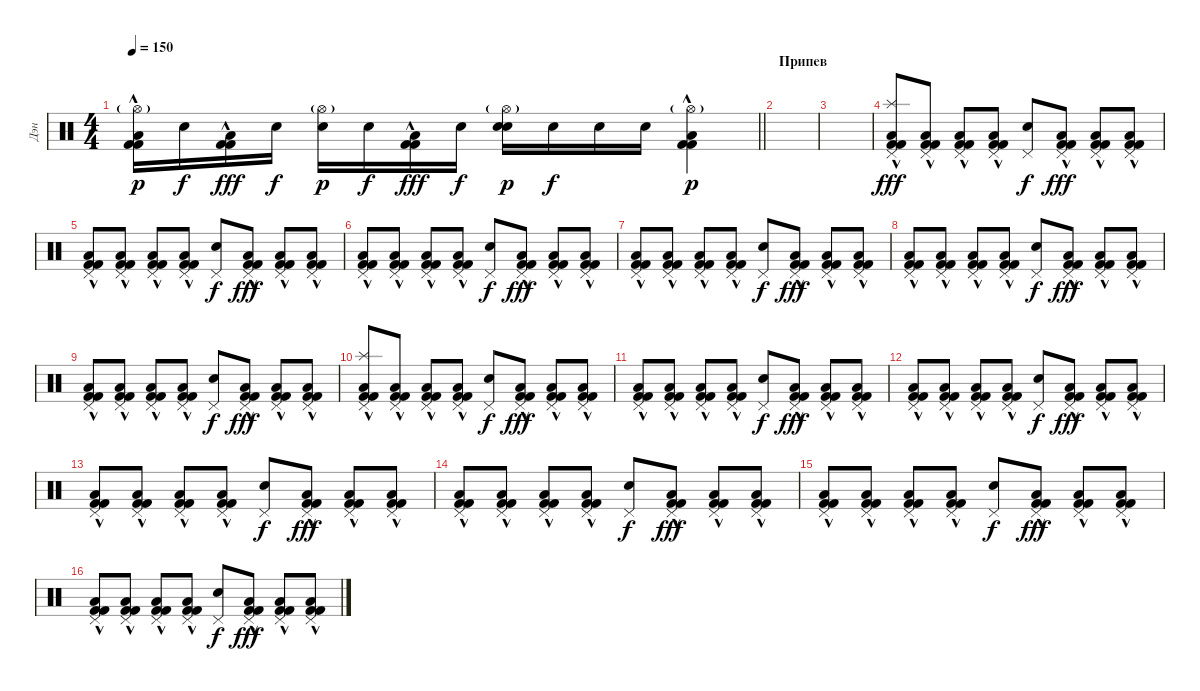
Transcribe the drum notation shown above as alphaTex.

\track ("Дэн" "Дэн") {instrument percussion}
\staff {score}
\articulation defaults
\ts (4 4)
\tempo 150
\clef neutral
\barLineRight lightlight
\ks c
("Kick (hit) 2"{hac} "Kick (hit) 2"{hac} "Low Floor Tom (hit)" "Hi-Hat (open)"{g}).16{dy p} "Snare (hit)".16{dy f} ("Kick (hit) 2"{hac} "Kick (hit) 2"{hac} "Low Floor Tom (hit)").16{dy fff} "Snare (hit)".16{dy f} ("Snare (hit)" "Hi-Hat (open)"{g}).16{dy p} "Snare (hit)".16{dy f} ("Low Floor Tom (hit)" "Kick (hit) 2"{hac} "Kick (hit) 2"{hac}).16{dy fff} "Snare (hit)".16{dy f} ("Snare (hit)" "Electric Snare (hit)" "Hi-Hat (open)"{g}).16{dy p} "Snare (hit)".16{dy f} "Snare (hit)".16 "Snare (hit)".16 ("Low Floor Tom (hit)" "Kick (hit) 2"{hac} "Kick (hit) 2"{hac} "Hi-Hat (open)"{g}).4{dy p} |
\section ("" "Припев")
|
|
("Splash (hit)" "Low Floor Tom (hit)" "Kick (hit) 2"{hac} "Kick (hit) 2"{hac} "Pedal Hi-Hat (hit)").8{dy fff} ("Low Floor Tom (hit)" "Kick (hit) 2"{hac} "Kick (hit) 2"{hac} "Pedal Hi-Hat (hit)").8 ("Low Floor Tom (hit)" "Kick (hit) 2"{hac} "Kick (hit) 2"{hac} "Pedal Hi-Hat (hit)").8 ("Low Floor Tom (hit)" "Kick (hit) 2"{hac} "Kick (hit) 2"{hac} "Pedal Hi-Hat (hit)").8 ("Electric Snare (hit)" "Pedal Hi-Hat (hit)").8{dy f} ("Low Floor Tom (hit)" "Kick (hit) 2"{hac} "Kick (hit) 2"{hac} "Pedal Hi-Hat (hit)").8{dy fff} ("Low Floor Tom (hit)" "Kick (hit) 2"{hac} "Kick (hit) 2"{hac} "Pedal Hi-Hat (hit)").8 ("Low Floor Tom (hit)" "Kick (hit) 2"{hac} "Kick (hit) 2"{hac} "Pedal Hi-Hat (hit)").8 |
("Low Floor Tom (hit)" "Kick (hit) 2"{hac} "Kick (hit) 2"{hac} "Pedal Hi-Hat (hit)").8 ("Low Floor Tom (hit)" "Kick (hit) 2"{hac} "Kick (hit) 2"{hac} "Pedal Hi-Hat (hit)").8 ("Low Floor Tom (hit)" "Kick (hit) 2"{hac} "Kick (hit) 2"{hac} "Pedal Hi-Hat (hit)").8 ("Low Floor Tom (hit)" "Kick (hit) 2"{hac} "Kick (hit) 2"{hac} "Pedal Hi-Hat (hit)").8 ("Electric Snare (hit)" "Pedal Hi-Hat (hit)").8{dy f} ("Low Floor Tom (hit)" "Kick (hit) 2"{hac} "Kick (hit) 2"{hac} "Pedal Hi-Hat (hit)").8{dy fff} ("Low Floor Tom (hit)" "Kick (hit) 2"{hac} "Kick (hit) 2"{hac} "Pedal Hi-Hat (hit)").8 ("Low Floor Tom (hit)" "Kick (hit) 2"{hac} "Kick (hit) 2"{hac} "Pedal Hi-Hat (hit)").8 |
("Low Floor Tom (hit)" "Kick (hit) 2"{hac} "Kick (hit) 2"{hac} "Pedal Hi-Hat (hit)").8 ("Low Floor Tom (hit)" "Kick (hit) 2"{hac} "Kick (hit) 2"{hac} "Pedal Hi-Hat (hit)").8 ("Low Floor Tom (hit)" "Kick (hit) 2"{hac} "Kick (hit) 2"{hac} "Pedal Hi-Hat (hit)").8 ("Low Floor Tom (hit)" "Kick (hit) 2"{hac} "Kick (hit) 2"{hac} "Pedal Hi-Hat (hit)").8 ("Electric Snare (hit)" "Pedal Hi-Hat (hit)").8{dy f} ("Low Floor Tom (hit)" "Kick (hit) 2"{hac} "Kick (hit) 2"{hac} "Pedal Hi-Hat (hit)").8{dy fff} ("Low Floor Tom (hit)" "Kick (hit) 2"{hac} "Kick (hit) 2"{hac} "Pedal Hi-Hat (hit)").8 ("Low Floor Tom (hit)" "Kick (hit) 2"{hac} "Kick (hit) 2"{hac} "Pedal Hi-Hat (hit)").8 |
("Low Floor Tom (hit)" "Kick (hit) 2"{hac} "Kick (hit) 2"{hac} "Pedal Hi-Hat (hit)").8 ("Low Floor Tom (hit)" "Kick (hit) 2"{hac} "Kick (hit) 2"{hac} "Pedal Hi-Hat (hit)").8 ("Low Floor Tom (hit)" "Kick (hit) 2"{hac} "Kick (hit) 2"{hac} "Pedal Hi-Hat (hit)").8 ("Low Floor Tom (hit)" "Kick (hit) 2"{hac} "Kick (hit) 2"{hac} "Pedal Hi-Hat (hit)").8 ("Electric Snare (hit)" "Pedal Hi-Hat (hit)").8{dy f} ("Low Floor Tom (hit)" "Kick (hit) 2"{hac} "Kick (hit) 2"{hac} "Pedal Hi-Hat (hit)").8{dy fff} ("Low Floor Tom (hit)" "Kick (hit) 2"{hac} "Kick (hit) 2"{hac} "Pedal Hi-Hat (hit)").8 ("Low Floor Tom (hit)" "Kick (hit) 2"{hac} "Kick (hit) 2"{hac} "Pedal Hi-Hat (hit)").8 |
("Low Floor Tom (hit)" "Kick (hit) 2"{hac} "Kick (hit) 2"{hac} "Pedal Hi-Hat (hit)").8 ("Low Floor Tom (hit)" "Kick (hit) 2"{hac} "Kick (hit) 2"{hac} "Pedal Hi-Hat (hit)").8 ("Low Floor Tom (hit)" "Kick (hit) 2"{hac} "Kick (hit) 2"{hac} "Pedal Hi-Hat (hit)").8 ("Low Floor Tom (hit)" "Kick (hit) 2"{hac} "Kick (hit) 2"{hac} "Pedal Hi-Hat (hit)").8 ("Electric Snare (hit)" "Pedal Hi-Hat (hit)").8{dy f} ("Low Floor Tom (hit)" "Kick (hit) 2"{hac} "Kick (hit) 2"{hac} "Pedal Hi-Hat (hit)").8{dy fff} ("Low Floor Tom (hit)" "Kick (hit) 2"{hac} "Kick (hit) 2"{hac} "Pedal Hi-Hat (hit)").8 ("Low Floor Tom (hit)" "Kick (hit) 2"{hac} "Kick (hit) 2"{hac} "Pedal Hi-Hat (hit)").8 |
("Low Floor Tom (hit)" "Kick (hit) 2"{hac} "Kick (hit) 2"{hac} "Pedal Hi-Hat (hit)").8 ("Low Floor Tom (hit)" "Kick (hit) 2"{hac} "Kick (hit) 2"{hac} "Pedal Hi-Hat (hit)").8 ("Low Floor Tom (hit)" "Kick (hit) 2"{hac} "Kick (hit) 2"{hac} "Pedal Hi-Hat (hit)").8 ("Low Floor Tom (hit)" "Kick (hit) 2"{hac} "Kick (hit) 2"{hac} "Pedal Hi-Hat (hit)").8 ("Electric Snare (hit)" "Pedal Hi-Hat (hit)").8{dy f} ("Low Floor Tom (hit)" "Kick (hit) 2"{hac} "Kick (hit) 2"{hac} "Pedal Hi-Hat (hit)").8{dy fff} ("Low Floor Tom (hit)" "Kick (hit) 2"{hac} "Kick (hit) 2"{hac} "Pedal Hi-Hat (hit)").8 ("Low Floor Tom (hit)" "Kick (hit) 2"{hac} "Kick (hit) 2"{hac} "Pedal Hi-Hat (hit)").8 |
("Splash (hit)" "Low Floor Tom (hit)" "Kick (hit) 2"{hac} "Kick (hit) 2"{hac} "Pedal Hi-Hat (hit)").8 ("Low Floor Tom (hit)" "Kick (hit) 2"{hac} "Kick (hit) 2"{hac} "Pedal Hi-Hat (hit)").8 ("Low Floor Tom (hit)" "Kick (hit) 2"{hac} "Kick (hit) 2"{hac} "Pedal Hi-Hat (hit)").8 ("Low Floor Tom (hit)" "Kick (hit) 2"{hac} "Kick (hit) 2"{hac} "Pedal Hi-Hat (hit)").8 ("Electric Snare (hit)" "Pedal Hi-Hat (hit)").8{dy f} ("Low Floor Tom (hit)" "Kick (hit) 2"{hac} "Kick (hit) 2"{hac} "Pedal Hi-Hat (hit)").8{dy fff} ("Low Floor Tom (hit)" "Kick (hit) 2"{hac} "Kick (hit) 2"{hac} "Pedal Hi-Hat (hit)").8 ("Low Floor Tom (hit)" "Kick (hit) 2"{hac} "Kick (hit) 2"{hac} "Pedal Hi-Hat (hit)").8 |
("Low Floor Tom (hit)" "Kick (hit) 2"{hac} "Kick (hit) 2"{hac} "Pedal Hi-Hat (hit)").8 ("Low Floor Tom (hit)" "Kick (hit) 2"{hac} "Kick (hit) 2"{hac} "Pedal Hi-Hat (hit)").8 ("Low Floor Tom (hit)" "Kick (hit) 2"{hac} "Kick (hit) 2"{hac} "Pedal Hi-Hat (hit)").8 ("Low Floor Tom (hit)" "Kick (hit) 2"{hac} "Kick (hit) 2"{hac} "Pedal Hi-Hat (hit)").8 ("Electric Snare (hit)" "Pedal Hi-Hat (hit)").8{dy f} ("Low Floor Tom (hit)" "Kick (hit) 2"{hac} "Kick (hit) 2"{hac} "Pedal Hi-Hat (hit)").8{dy fff} ("Low Floor Tom (hit)" "Kick (hit) 2"{hac} "Kick (hit) 2"{hac} "Pedal Hi-Hat (hit)").8 ("Low Floor Tom (hit)" "Kick (hit) 2"{hac} "Kick (hit) 2"{hac} "Pedal Hi-Hat (hit)").8 |
("Low Floor Tom (hit)" "Kick (hit) 2"{hac} "Kick (hit) 2"{hac} "Pedal Hi-Hat (hit)").8 ("Low Floor Tom (hit)" "Kick (hit) 2"{hac} "Kick (hit) 2"{hac} "Pedal Hi-Hat (hit)").8 ("Low Floor Tom (hit)" "Kick (hit) 2"{hac} "Kick (hit) 2"{hac} "Pedal Hi-Hat (hit)").8 ("Low Floor Tom (hit)" "Kick (hit) 2"{hac} "Kick (hit) 2"{hac} "Pedal Hi-Hat (hit)").8 ("Electric Snare (hit)" "Pedal Hi-Hat (hit)").8{dy f} ("Low Floor Tom (hit)" "Kick (hit) 2"{hac} "Kick (hit) 2"{hac} "Pedal Hi-Hat (hit)").8{dy fff} ("Low Floor Tom (hit)" "Kick (hit) 2"{hac} "Kick (hit) 2"{hac} "Pedal Hi-Hat (hit)").8 ("Low Floor Tom (hit)" "Kick (hit) 2"{hac} "Kick (hit) 2"{hac} "Pedal Hi-Hat (hit)").8 |
("Low Floor Tom (hit)" "Kick (hit) 2"{hac} "Kick (hit) 2"{hac} "Pedal Hi-Hat (hit)").8 ("Low Floor Tom (hit)" "Kick (hit) 2"{hac} "Kick (hit) 2"{hac} "Pedal Hi-Hat (hit)").8 ("Low Floor Tom (hit)" "Kick (hit) 2"{hac} "Kick (hit) 2"{hac} "Pedal Hi-Hat (hit)").8 ("Low Floor Tom (hit)" "Kick (hit) 2"{hac} "Kick (hit) 2"{hac} "Pedal Hi-Hat (hit)").8 ("Electric Snare (hit)" "Pedal Hi-Hat (hit)").8{dy f} ("Low Floor Tom (hit)" "Kick (hit) 2"{hac} "Kick (hit) 2"{hac} "Pedal Hi-Hat (hit)").8{dy fff} ("Low Floor Tom (hit)" "Kick (hit) 2"{hac} "Kick (hit) 2"{hac} "Pedal Hi-Hat (hit)").8 ("Low Floor Tom (hit)" "Kick (hit) 2"{hac} "Kick (hit) 2"{hac} "Pedal Hi-Hat (hit)").8 |
("Low Floor Tom (hit)" "Kick (hit) 2"{hac} "Kick (hit) 2"{hac} "Pedal Hi-Hat (hit)").8 ("Low Floor Tom (hit)" "Kick (hit) 2"{hac} "Kick (hit) 2"{hac} "Pedal Hi-Hat (hit)").8 ("Low Floor Tom (hit)" "Kick (hit) 2"{hac} "Kick (hit) 2"{hac} "Pedal Hi-Hat (hit)").8 ("Low Floor Tom (hit)" "Kick (hit) 2"{hac} "Kick (hit) 2"{hac} "Pedal Hi-Hat (hit)").8 ("Electric Snare (hit)" "Pedal Hi-Hat (hit)").8{dy f} ("Low Floor Tom (hit)" "Kick (hit) 2"{hac} "Kick (hit) 2"{hac} "Pedal Hi-Hat (hit)").8{dy fff} ("Low Floor Tom (hit)" "Kick (hit) 2"{hac} "Kick (hit) 2"{hac} "Pedal Hi-Hat (hit)").8 ("Low Floor Tom (hit)" "Kick (hit) 2"{hac} "Kick (hit) 2"{hac} "Pedal Hi-Hat (hit)").8 |
("Low Floor Tom (hit)" "Kick (hit) 2"{hac} "Kick (hit) 2"{hac} "Pedal Hi-Hat (hit)").8 ("Low Floor Tom (hit)" "Kick (hit) 2"{hac} "Kick (hit) 2"{hac} "Pedal Hi-Hat (hit)").8 ("Low Floor Tom (hit)" "Kick (hit) 2"{hac} "Kick (hit) 2"{hac} "Pedal Hi-Hat (hit)").8 ("Low Floor Tom (hit)" "Kick (hit) 2"{hac} "Kick (hit) 2"{hac} "Pedal Hi-Hat (hit)").8 ("Electric Snare (hit)" "Pedal Hi-Hat (hit)").8{dy f} ("Low Floor Tom (hit)" "Kick (hit) 2"{hac} "Kick (hit) 2"{hac} "Pedal Hi-Hat (hit)").8{dy fff} ("Low Floor Tom (hit)" "Kick (hit) 2"{hac} "Kick (hit) 2"{hac} "Pedal Hi-Hat (hit)").8 ("Low Floor Tom (hit)" "Kick (hit) 2"{hac} "Kick (hit) 2"{hac} "Pedal Hi-Hat (hit)").8 |
("Low Floor Tom (hit)" "Kick (hit) 2"{hac} "Kick (hit) 2"{hac} "Pedal Hi-Hat (hit)").8 ("Low Floor Tom (hit)" "Kick (hit) 2"{hac} "Kick (hit) 2"{hac} "Pedal Hi-Hat (hit)").8 ("Low Floor Tom (hit)" "Kick (hit) 2"{hac} "Kick (hit) 2"{hac} "Pedal Hi-Hat (hit)").8 ("Low Floor Tom (hit)" "Kick (hit) 2"{hac} "Kick (hit) 2"{hac} "Pedal Hi-Hat (hit)").8 ("Electric Snare (hit)" "Pedal Hi-Hat (hit)").8{dy f} ("Low Floor Tom (hit)" "Kick (hit) 2"{hac} "Kick (hit) 2"{hac} "Pedal Hi-Hat (hit)").8{dy fff} ("Low Floor Tom (hit)" "Kick (hit) 2"{hac} "Kick (hit) 2"{hac} "Pedal Hi-Hat (hit)").8 ("Low Floor Tom (hit)" "Kick (hit) 2"{hac} "Kick (hit) 2"{hac} "Pedal Hi-Hat (hit)").8
